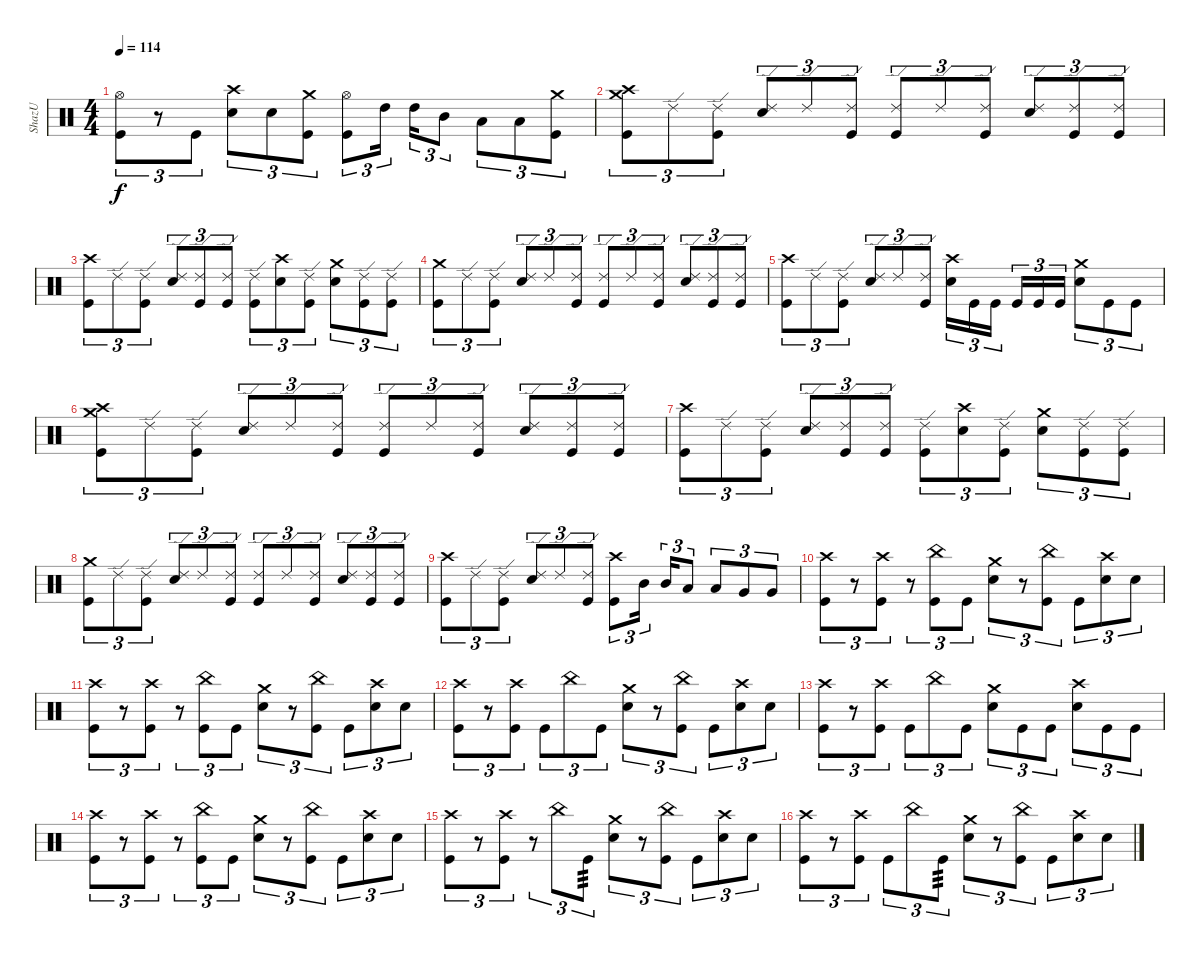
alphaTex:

\track ("ShazU" "ShazU") {instrument percussion}
\staff {score}
\articulation defaults
\ts (4 4)
\tempo 114
\clef neutral
\ks c
("Kick (hit)" "Hi-Hat (open)").8{tu (3 2) dy f} r.8{tu (3 2)} "Kick (hit)".8{tu (3 2)} ("Snare (hit) 2" "Crash high (hit)").8{tu (3 2)} "Snare (hit) 2".8{tu (3 2)} ("Kick (hit)" "Crash medium (hit)").8{tu (3 2)} ("Kick (hit)" "Hi-Hat (open)").8{tu (3 2)} "High Tom (hit)".16{tu (3 2) beam splitsecondary} "High Tom (hit)".16{tu (3 2)} "Mid Tom (hit)".8{tu (3 2)} "Low Tom (hit)".8{tu (3 2)} "Low Tom (hit)".8{tu (3 2)} ("Kick (hit)" "Crash medium (hit)").8{tu (3 2)} |
("Kick (hit)" "Crash medium (hit)" "Crash high (hit)").8{tu (3 2)} "Ride (edge) 2".8{tu (3 2)} ("Kick (hit)" "Ride (edge) 2").8{tu (3 2)} ("Snare (hit) 2" "Ride (edge) 2").8{tu (3 2)} "Ride (edge) 2".8{tu (3 2)} ("Kick (hit)" "Ride (edge) 2").8{tu (3 2)} ("Kick (hit)" "Ride (edge) 2").8{tu (3 2)} "Ride (edge) 2".8{tu (3 2)} ("Kick (hit)" "Ride (edge) 2").8{tu (3 2)} ("Snare (hit) 2" "Ride (edge) 2").8{tu (3 2)} ("Kick (hit)" "Ride (edge) 2").8{tu (3 2)} ("Kick (hit)" "Ride (edge) 2").8{tu (3 2)} |
("Kick (hit)" "Crash high (hit)").8{tu (3 2)} "Ride (edge) 2".8{tu (3 2)} ("Kick (hit)" "Ride (edge) 2").8{tu (3 2)} ("Snare (hit) 2" "Ride (edge) 2").8{tu (3 2)} ("Kick (hit)" "Ride (edge) 2").8{tu (3 2)} ("Kick (hit)" "Ride (edge) 2").8{tu (3 2)} ("Kick (hit)" "Ride (edge) 2").8{tu (3 2)} ("Snare (hit) 2" "Crash high (hit)").8{tu (3 2)} ("Kick (hit)" "Ride (edge) 2").8{tu (3 2)} ("Snare (hit) 2" "Crash medium (hit)").8{tu (3 2)} ("Kick (hit)" "Ride (edge) 2").8{tu (3 2)} ("Kick (hit)" "Ride (edge) 2").8{tu (3 2)} |
("Kick (hit)" "Crash medium (hit)").8{tu (3 2)} "Ride (edge) 2".8{tu (3 2)} ("Kick (hit)" "Ride (edge) 2").8{tu (3 2)} ("Snare (hit) 2" "Ride (edge) 2").8{tu (3 2)} "Ride (edge) 2".8{tu (3 2)} ("Kick (hit)" "Ride (edge) 2").8{tu (3 2)} ("Kick (hit)" "Ride (edge) 2").8{tu (3 2)} "Ride (edge) 2".8{tu (3 2)} ("Kick (hit)" "Ride (edge) 2").8{tu (3 2)} ("Snare (hit) 2" "Ride (edge) 2").8{tu (3 2)} ("Kick (hit)" "Ride (edge) 2").8{tu (3 2)} ("Kick (hit)" "Ride (edge) 2").8{tu (3 2)} |
("Kick (hit)" "Crash high (hit)").8{tu (3 2)} "Ride (edge) 2".8{tu (3 2)} ("Kick (hit)" "Ride (edge) 2").8{tu (3 2)} ("Snare (hit) 2" "Ride (edge) 2").8{tu (3 2)} "Ride (edge) 2".8{tu (3 2)} ("Kick (hit)" "Ride (edge) 2").8{tu (3 2)} ("Snare (hit) 2" "Crash high (hit)").16{tu (3 2)} "Kick (hit)".16{tu (3 2)} "Kick (hit)".16{tu (3 2) beam splitsecondary} "Kick (hit)".16{tu (3 2)} "Kick (hit)".16{tu (3 2)} "Kick (hit)".16{tu (3 2)} ("Snare (hit) 2" "Crash medium (hit)").8{tu (3 2)} "Kick (hit)".8{tu (3 2)} "Kick (hit)".8{tu (3 2)} |
("Kick (hit)" "Crash medium (hit)" "Crash high (hit)").8{tu (3 2)} "Ride (edge) 2".8{tu (3 2)} ("Kick (hit)" "Ride (edge) 2").8{tu (3 2)} ("Snare (hit) 2" "Ride (edge) 2").8{tu (3 2)} "Ride (edge) 2".8{tu (3 2)} ("Kick (hit)" "Ride (edge) 2").8{tu (3 2)} ("Kick (hit)" "Ride (edge) 2").8{tu (3 2)} "Ride (edge) 2".8{tu (3 2)} ("Kick (hit)" "Ride (edge) 2").8{tu (3 2)} ("Snare (hit) 2" "Ride (edge) 2").8{tu (3 2)} ("Kick (hit)" "Ride (edge) 2").8{tu (3 2)} ("Kick (hit)" "Ride (edge) 2").8{tu (3 2)} |
("Kick (hit)" "Crash high (hit)").8{tu (3 2)} "Ride (edge) 2".8{tu (3 2)} ("Kick (hit)" "Ride (edge) 2").8{tu (3 2)} ("Snare (hit) 2" "Ride (edge) 2").8{tu (3 2)} ("Kick (hit)" "Ride (edge) 2").8{tu (3 2)} ("Kick (hit)" "Ride (edge) 2").8{tu (3 2)} ("Kick (hit)" "Ride (edge) 2").8{tu (3 2)} ("Snare (hit) 2" "Crash high (hit)").8{tu (3 2)} ("Kick (hit)" "Ride (edge) 2").8{tu (3 2)} ("Snare (hit) 2" "Crash medium (hit)").8{tu (3 2)} ("Kick (hit)" "Ride (edge) 2").8{tu (3 2)} ("Kick (hit)" "Ride (edge) 2").8{tu (3 2)} |
("Kick (hit)" "Crash medium (hit)").8{tu (3 2)} "Ride (edge) 2".8{tu (3 2)} ("Kick (hit)" "Ride (edge) 2").8{tu (3 2)} ("Snare (hit) 2" "Ride (edge) 2").8{tu (3 2)} "Ride (edge) 2".8{tu (3 2)} ("Kick (hit)" "Ride (edge) 2").8{tu (3 2)} ("Kick (hit)" "Ride (edge) 2").8{tu (3 2)} "Ride (edge) 2".8{tu (3 2)} ("Kick (hit)" "Ride (edge) 2").8{tu (3 2)} ("Snare (hit) 2" "Ride (edge) 2").8{tu (3 2)} ("Kick (hit)" "Ride (edge) 2").8{tu (3 2)} ("Kick (hit)" "Ride (edge) 2").8{tu (3 2)} |
("Kick (hit)" "Crash high (hit)").8{tu (3 2)} "Ride (edge) 2".8{tu (3 2)} ("Kick (hit)" "Ride (edge) 2").8{tu (3 2)} ("Snare (hit) 2" "Ride (edge) 2").8{tu (3 2)} "Ride (edge) 2".8{tu (3 2)} ("Kick (hit)" "Ride (edge) 2").8{tu (3 2)} ("Kick (hit)" "Crash high (hit)").8{tu (3 2)} "Mid Tom (hit)".16{tu (3 2) beam splitsecondary} "Mid Tom (hit)".16{tu (3 2)} "Low Tom (hit)".8{tu (3 2)} "Low Tom (hit)".8{tu (3 2)} "Very Low Tom (hit)".8{tu (3 2)} "Very Low Tom (hit)".8{tu (3 2)} |
("Kick (hit)" "Crash high (hit)").8{tu (3 2)} r.8{tu (3 2)} ("Kick (hit)" "Crash high (hit)").8{tu (3 2)} r.8{tu (3 2)} ("Kick (hit)" "China (hit)").8{tu (3 2)} "Kick (hit)".8{tu (3 2)} ("Snare (hit) 2" "Crash medium (hit)").8{tu (3 2)} r.8{tu (3 2)} ("Kick (hit)" "China (hit)").8{tu (3 2)} "Kick (hit)".8{tu (3 2)} ("Snare (hit) 2" "Crash high (hit)").8{tu (3 2)} "Snare (hit) 2".8{tu (3 2)} |
("Kick (hit)" "Crash high (hit)").8{tu (3 2)} r.8{tu (3 2)} ("Kick (hit)" "Crash high (hit)").8{tu (3 2)} r.8{tu (3 2)} ("Kick (hit)" "China (hit)").8{tu (3 2)} "Kick (hit)".8{tu (3 2)} ("Snare (hit) 2" "Crash medium (hit)").8{tu (3 2)} r.8{tu (3 2)} ("Kick (hit)" "China (hit)").8{tu (3 2)} "Kick (hit)".8{tu (3 2)} ("Snare (hit) 2" "Crash high (hit)").8{tu (3 2)} "Snare (hit) 2".8{tu (3 2)} |
("Kick (hit)" "Crash high (hit)").8{tu (3 2)} r.8{tu (3 2)} ("Kick (hit)" "Crash high (hit)").8{tu (3 2)} "Kick (hit)".8{tu (3 2)} "China (hit)".8{tu (3 2)} "Kick (hit)".8{tu (3 2)} ("Snare (hit) 2" "Crash medium (hit)").8{tu (3 2)} r.8{tu (3 2)} ("Kick (hit)" "China (hit)").8{tu (3 2)} "Kick (hit)".8{tu (3 2)} ("Snare (hit) 2" "Crash high (hit)").8{tu (3 2)} "Snare (hit) 2".8{tu (3 2)} |
("Kick (hit)" "Crash high (hit)").8{tu (3 2)} r.8{tu (3 2)} ("Kick (hit)" "Crash high (hit)").8{tu (3 2)} "Kick (hit)".8{tu (3 2)} "China (hit)".8{tu (3 2)} "Kick (hit)".8{tu (3 2)} ("Snare (hit) 2" "Crash medium (hit)").8{tu (3 2)} "Kick (hit)".8{tu (3 2)} "Kick (hit)".8{tu (3 2)} ("Snare (hit) 2" "Crash high (hit)").8{tu (3 2)} "Kick (hit)".8{tu (3 2)} "Kick (hit)".8{tu (3 2)} |
("Kick (hit)" "Crash high (hit)").8{tu (3 2)} r.8{tu (3 2)} ("Kick (hit)" "Crash high (hit)").8{tu (3 2)} r.8{tu (3 2)} ("Kick (hit)" "China (hit)").8{tu (3 2)} "Kick (hit)".8{tu (3 2)} ("Snare (hit) 2" "Crash medium (hit)").8{tu (3 2)} r.8{tu (3 2)} ("Kick (hit)" "China (hit)").8{tu (3 2)} "Kick (hit)".8{tu (3 2)} ("Snare (hit) 2" "Crash high (hit)").8{tu (3 2)} "Snare (hit) 2".8{tu (3 2)} |
("Kick (hit)" "Crash high (hit)").8{tu (3 2)} r.8{tu (3 2)} ("Kick (hit)" "Crash high (hit)").8{tu (3 2)} r.8{tu (3 2)} "China (hit)".8{tu (3 2)} "Kick (hit)".8{tu (3 2) tp 3} ("Snare (hit) 2" "Crash medium (hit)").8{tu (3 2)} r.8{tu (3 2)} ("Kick (hit)" "China (hit)").8{tu (3 2)} "Kick (hit)".8{tu (3 2)} ("Snare (hit) 2" "Crash high (hit)").8{tu (3 2)} "Snare (hit) 2".8{tu (3 2)} |
("Kick (hit)" "Crash high (hit)").8{tu (3 2)} r.8{tu (3 2)} ("Kick (hit)" "Crash high (hit)").8{tu (3 2)} "Kick (hit)".8{tu (3 2)} "China (hit)".8{tu (3 2)} "Kick (hit)".8{tu (3 2) tp 3} ("Snare (hit) 2" "Crash medium (hit)").8{tu (3 2)} r.8{tu (3 2)} ("Kick (hit)" "China (hit)").8{tu (3 2)} "Kick (hit)".8{tu (3 2)} ("Snare (hit) 2" "Crash high (hit)").8{tu (3 2)} "Snare (hit) 2".8{tu (3 2)}
